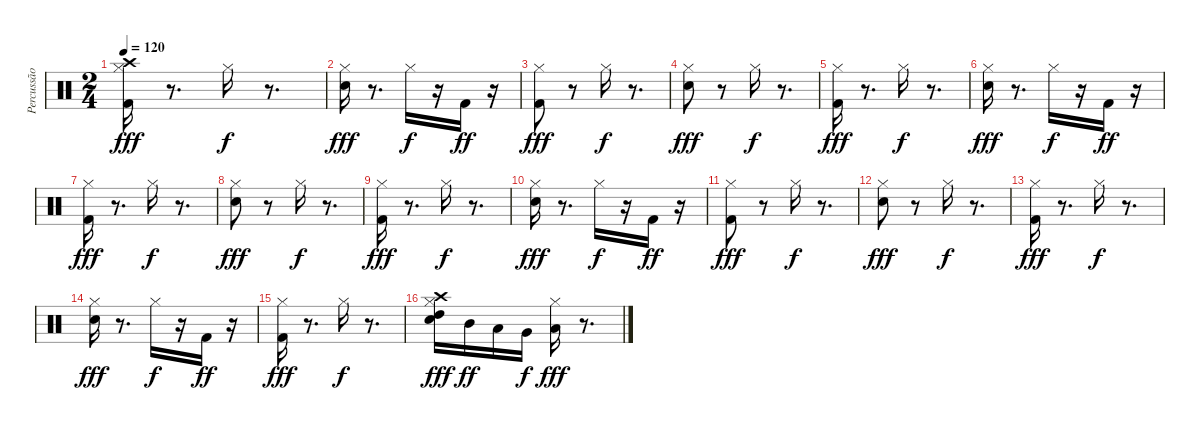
\track ("Percussão" "Percussão") {instrument percussion}
\staff {score}
\articulation defaults
\ts (2 4)
\tempo 120
\clef neutral
\ks c
("Crash high (hit)" "Kick (hit) 2" "Hi-Hat (closed)").16{dy fff} r.8{d} "Hi-Hat (closed)".16{dy f} r.8{d} |
("Snare (hit) 2" "Hi-Hat (closed)").16{dy fff} r.8{d} "Hi-Hat (closed)".16{dy f} r.16 "Kick (hit) 2".16{dy ff} r.16 |
("Kick (hit) 2" "Hi-Hat (closed)").8{dy fff} r.8 "Hi-Hat (closed)".16{dy f} r.8{d} |
("Snare (hit) 2" "Hi-Hat (closed)").8{dy fff} r.8 "Hi-Hat (closed)".16{dy f} r.8{d} |
("Kick (hit) 2" "Hi-Hat (closed)").16{dy fff} r.8{d} "Hi-Hat (closed)".16{dy f} r.8{d} |
("Snare (hit) 2" "Hi-Hat (closed)").16{dy fff} r.8{d} "Hi-Hat (closed)".16{dy f} r.16 "Kick (hit) 2".16{dy ff} r.16 |
("Kick (hit) 2" "Hi-Hat (closed)").16{dy fff} r.8{d} "Hi-Hat (closed)".16{dy f} r.8{d} |
("Snare (hit) 2" "Hi-Hat (closed)").8{dy fff} r.8 "Hi-Hat (closed)".16{dy f} r.8{d} |
("Kick (hit) 2" "Hi-Hat (closed)").16{dy fff} r.8{d} "Hi-Hat (closed)".16{dy f} r.8{d} |
("Snare (hit) 2" "Hi-Hat (closed)").16{dy fff} r.8{d} "Hi-Hat (closed)".16{dy f} r.16 "Kick (hit) 2".16{dy ff} r.16 |
("Kick (hit) 2" "Hi-Hat (closed)").8{dy fff} r.8 "Hi-Hat (closed)".16{dy f} r.8{d} |
("Snare (hit) 2" "Hi-Hat (closed)").8{dy fff} r.8 "Hi-Hat (closed)".16{dy f} r.8{d} |
("Kick (hit) 2" "Hi-Hat (closed)").16{dy fff} r.8{d} "Hi-Hat (closed)".16{dy f} r.8{d} |
("Snare (hit) 2" "Hi-Hat (closed)").16{dy fff} r.8{d} "Hi-Hat (closed)".16{dy f} r.16 "Kick (hit) 2".16{dy ff} r.16 |
("Kick (hit) 2" "Hi-Hat (closed)").16{dy fff} r.8{d} "Hi-Hat (closed)".16{dy f} r.8{d} |
("Crash high (hit)" "Snare (hit) 2" "Hi-Hat (closed)" "High Tom (hit)").16{dy fff} "Mid Tom (hit)".16{dy ff} "Low Tom (hit)".16 "Very Low Tom (hit)".16{dy f} ("Low Floor Tom (hit)" "Hi-Hat (closed)").16{dy fff} r.8{d}
